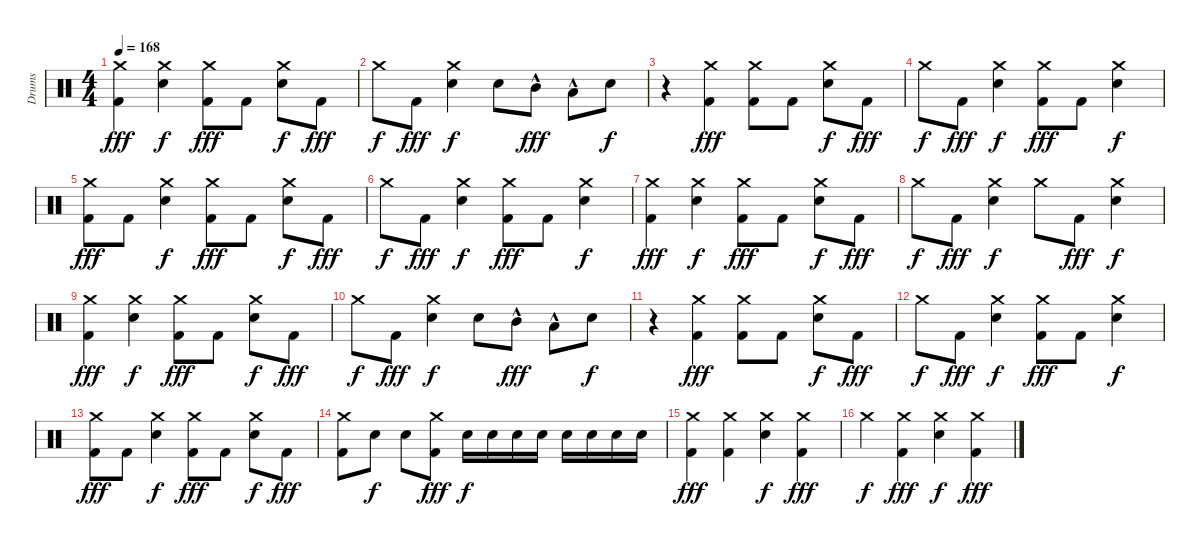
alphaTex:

\track ("Drums" "Drums") {instrument percussion}
\staff {score}
\articulation defaults
\ts (4 4)
\tempo 168
\clef neutral
\ks c
("Crash medium (hit)" "Kick (hit) 2").4{dy fff} ("Crash medium (hit)" "Electric Snare (hit)").4{dy f} ("Crash medium (hit)" "Kick (hit) 2").8{dy fff} "Kick (hit) 2".8 ("Crash medium (hit)" "Electric Snare (hit)").8{dy f} "Kick (hit) 2".8{dy fff} |
"Crash medium (hit)".8{dy f} "Kick (hit) 2".8{dy fff} ("Crash medium (hit)" "Electric Snare (hit)").4{dy f} "Electric Snare (hit)".8 "Mid Tom (hit)"{hac}.8{dy fff} "Low Tom (hit)"{hac}.8 "Electric Snare (hit)".8{dy f} |
r.4 ("Crash medium (hit)" "Kick (hit) 2").4{dy fff} ("Crash medium (hit)" "Kick (hit) 2").8 "Kick (hit) 2".8 ("Crash medium (hit)" "Electric Snare (hit)").8{dy f} "Kick (hit) 2".8{dy fff} |
"Crash medium (hit)".8{dy f} "Kick (hit) 2".8{dy fff} ("Crash medium (hit)" "Electric Snare (hit)").4{dy f} ("Crash medium (hit)" "Kick (hit) 2").8{dy fff} "Kick (hit) 2".8 ("Crash medium (hit)" "Electric Snare (hit)").4{dy f} |
("Crash medium (hit)" "Kick (hit) 2").8{dy fff} "Kick (hit) 2".8 ("Crash medium (hit)" "Electric Snare (hit)").4{dy f} ("Crash medium (hit)" "Kick (hit) 2").8{dy fff} "Kick (hit) 2".8 ("Crash medium (hit)" "Electric Snare (hit)").8{dy f} "Kick (hit) 2".8{dy fff} |
"Crash medium (hit)".8{dy f} "Kick (hit) 2".8{dy fff} ("Crash medium (hit)" "Electric Snare (hit)").4{dy f} ("Crash medium (hit)" "Kick (hit) 2").8{dy fff} "Kick (hit) 2".8 ("Crash medium (hit)" "Electric Snare (hit)").4{dy f} |
("Crash medium (hit)" "Kick (hit) 2").4{dy fff} ("Crash medium (hit)" "Electric Snare (hit)").4{dy f} ("Crash medium (hit)" "Kick (hit) 2").8{dy fff} "Kick (hit) 2".8 ("Crash medium (hit)" "Electric Snare (hit)").8{dy f} "Kick (hit) 2".8{dy fff} |
"Crash medium (hit)".8{dy f} "Kick (hit) 2".8{dy fff} ("Crash medium (hit)" "Electric Snare (hit)").4{dy f} "Crash medium (hit)".8 "Kick (hit) 2".8{dy fff} ("Crash medium (hit)" "Electric Snare (hit)").4{dy f} |
("Crash medium (hit)" "Kick (hit) 2").4{dy fff} ("Crash medium (hit)" "Electric Snare (hit)").4{dy f} ("Crash medium (hit)" "Kick (hit) 2").8{dy fff} "Kick (hit) 2".8 ("Crash medium (hit)" "Electric Snare (hit)").8{dy f} "Kick (hit) 2".8{dy fff} |
"Crash medium (hit)".8{dy f} "Kick (hit) 2".8{dy fff} ("Crash medium (hit)" "Electric Snare (hit)").4{dy f} "Electric Snare (hit)".8 "Mid Tom (hit)"{hac}.8{dy fff} "Low Tom (hit)"{hac}.8 "Electric Snare (hit)".8{dy f} |
r.4 ("Crash medium (hit)" "Kick (hit) 2").4{dy fff} ("Crash medium (hit)" "Kick (hit) 2").8 "Kick (hit) 2".8 ("Crash medium (hit)" "Electric Snare (hit)").8{dy f} "Kick (hit) 2".8{dy fff} |
"Crash medium (hit)".8{dy f} "Kick (hit) 2".8{dy fff} ("Crash medium (hit)" "Electric Snare (hit)").4{dy f} ("Crash medium (hit)" "Kick (hit) 2").8{dy fff} "Kick (hit) 2".8 ("Crash medium (hit)" "Electric Snare (hit)").4{dy f} |
("Crash medium (hit)" "Kick (hit) 2").8{dy fff} "Kick (hit) 2".8 ("Crash medium (hit)" "Electric Snare (hit)").4{dy f} ("Crash medium (hit)" "Kick (hit) 2").8{dy fff} "Kick (hit) 2".8 ("Crash medium (hit)" "Electric Snare (hit)").8{dy f} "Kick (hit) 2".8{dy fff} |
("Crash medium (hit)" "Kick (hit) 2").8 "Electric Snare (hit)".8{dy f} "Electric Snare (hit)".8 ("Crash medium (hit)" "Kick (hit) 2").8{dy fff} "Electric Snare (hit)".16{dy f} "Electric Snare (hit)".16 "Electric Snare (hit)".16 "Electric Snare (hit)".16 "Electric Snare (hit)".16 "Electric Snare (hit)".16 "Electric Snare (hit)".16 "Electric Snare (hit)".16 |
("Crash medium (hit)" "Kick (hit) 2").4{dy fff} ("Crash medium (hit)" "Kick (hit) 2").4 ("Crash medium (hit)" "Electric Snare (hit)").4{dy f} ("Crash medium (hit)" "Kick (hit) 2").4{dy fff} |
"Crash medium (hit)".4{dy f} ("Crash medium (hit)" "Kick (hit) 2").4{dy fff} ("Crash medium (hit)" "Electric Snare (hit)").4{dy f} ("Crash medium (hit)" "Kick (hit) 2").4{dy fff}
